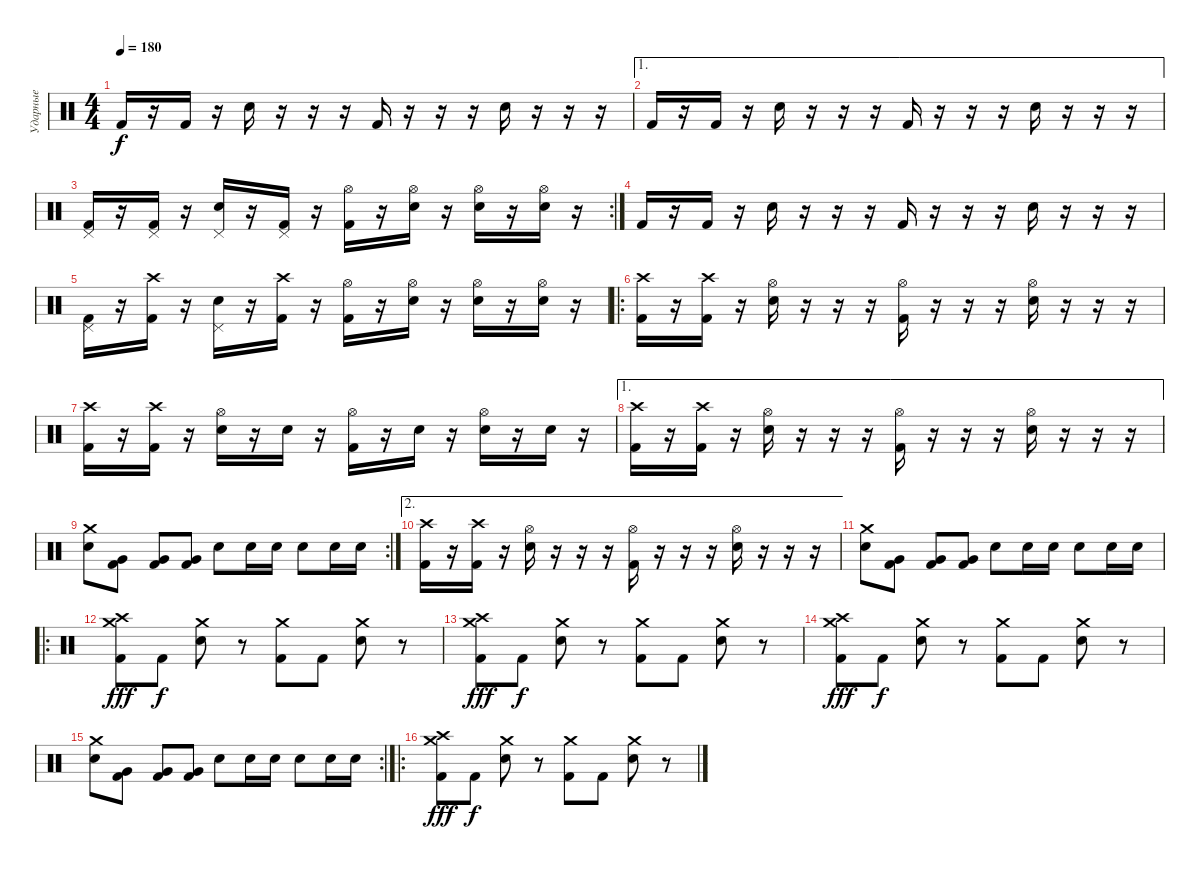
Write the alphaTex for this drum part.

\track ("Ударные" "Ударные") {instrument percussion}
\staff {score}
\articulation defaults
\ts (4 4)
\tempo 180
\clef neutral
\ks c "Kick (hit) 2".16{dy f}
r.16 "Kick (hit) 2".16 r.16 "Electric Snare (hit)".16 r.16 r.16 r.16 "Kick (hit) 2".16 r.16 r.16 r.16 "Electric Snare (hit)".16 r.16 r.16 r.16 |
\ae 1 "Kick (hit) 2".16
r.16 "Kick (hit) 2".16 r.16 "Electric Snare (hit)".16 r.16 r.16 r.16 "Kick (hit) 2".16 r.16 r.16 r.16 "Electric Snare (hit)".16 r.16 r.16 r.16 |
\rc 2
("Pedal Hi-Hat (hit)" "Kick (hit) 2").16 r.16 ("Pedal Hi-Hat (hit)" "Kick (hit) 2").16 r.16 ("Pedal Hi-Hat (hit)" "Electric Snare (hit)").16 r.16 ("Pedal Hi-Hat (hit)" "Kick (hit) 2").16 r.16 ("Hi-Hat (open)" "Kick (hit) 2").16 r.16 ("Hi-Hat (open)" "Electric Snare (hit)").16 r.16 ("Hi-Hat (open)" "Electric Snare (hit)").16 r.16 ("Hi-Hat (open)" "Electric Snare (hit)").16 r.16 |
"Kick (hit) 2".16 r.16 "Kick (hit) 2".16 r.16 "Electric Snare (hit)".16 r.16 r.16 r.16 "Kick (hit) 2".16 r.16 r.16 r.16 "Electric Snare (hit)".16 r.16 r.16 r.16 |
("Pedal Hi-Hat (hit)" "Kick (hit) 2").16 r.16 ("Crash high (hit)" "Kick (hit) 2").16 r.16 ("Pedal Hi-Hat (hit)" "Electric Snare (hit)").16 r.16 ("Crash high (hit)" "Kick (hit) 2").16 r.16 ("Hi-Hat (open)" "Kick (hit) 2").16 r.16 ("Hi-Hat (open)" "Electric Snare (hit)").16 r.16 ("Hi-Hat (open)" "Electric Snare (hit)").16 r.16 ("Hi-Hat (open)" "Electric Snare (hit)").16 r.16 |
\ro
("Crash high (hit)" "Kick (hit) 2").16 r.16 ("Crash high (hit)" "Kick (hit) 2").16 r.16 ("Hi-Hat (open)" "Electric Snare (hit)").16 r.16 r.16 r.16 ("Hi-Hat (open)" "Kick (hit) 2").16 r.16 r.16 r.16 ("Hi-Hat (open)" "Electric Snare (hit)").16 r.16 r.16 r.16 |
("Crash high (hit)" "Kick (hit) 2").16 r.16 ("Crash high (hit)" "Kick (hit) 2").16 r.16 ("Hi-Hat (open)" "Electric Snare (hit)").16 r.16 "Electric Snare (hit)".16 r.16 ("Hi-Hat (open)" "Kick (hit) 2").16 r.16 "Electric Snare (hit)".16 r.16 ("Hi-Hat (open)" "Electric Snare (hit)").16 r.16 "Electric Snare (hit)".16 r.16 |
\ae 1
("Crash high (hit)" "Kick (hit) 2").16 r.16 ("Crash high (hit)" "Kick (hit) 2").16 r.16 ("Hi-Hat (open)" "Electric Snare (hit)").16 r.16 r.16 r.16 ("Hi-Hat (open)" "Kick (hit) 2").16 r.16 r.16 r.16 ("Hi-Hat (open)" "Electric Snare (hit)").16 r.16 r.16 r.16 |
\rc 2
("Crash medium (hit)" "Electric Snare (hit)").8 ("Very Low Tom (hit)" "Kick (hit) 2").8 ("Very Low Tom (hit)" "Kick (hit) 2").8 ("Very Low Tom (hit)" "Kick (hit) 2").8 "Electric Snare (hit)".8 "Electric Snare (hit)".16 "Electric Snare (hit)".16 "Electric Snare (hit)".8 "Electric Snare (hit)".16 "Electric Snare (hit)".16 |
\ae 2
("Crash high (hit)" "Kick (hit) 2").16 r.16 ("Crash high (hit)" "Kick (hit) 2").16 r.16 ("Hi-Hat (open)" "Electric Snare (hit)").16 r.16 r.16 r.16 ("Hi-Hat (open)" "Kick (hit) 2").16 r.16 r.16 r.16 ("Hi-Hat (open)" "Electric Snare (hit)").16 r.16 r.16 r.16 |
("Crash medium (hit)" "Electric Snare (hit)").8 ("Very Low Tom (hit)" "Kick (hit) 2").8 ("Very Low Tom (hit)" "Kick (hit) 2").8 ("Very Low Tom (hit)" "Kick (hit) 2").8 "Electric Snare (hit)".8 "Electric Snare (hit)".16 "Electric Snare (hit)".16 "Electric Snare (hit)".8 "Electric Snare (hit)".16 "Electric Snare (hit)".16 |
\ro
("Crash high (hit)" "Crash medium (hit)" "Kick (hit) 2").8{dy fff} "Kick (hit) 2".8{dy f} ("Crash medium (hit)" "Electric Snare (hit)").8 r.8 ("Crash medium (hit)" "Kick (hit) 2").8 "Kick (hit) 2".8 ("Crash medium (hit)" "Electric Snare (hit)").8 r.8 |
("Crash high (hit)" "Crash medium (hit)" "Kick (hit) 2").8{dy fff} "Kick (hit) 2".8{dy f} ("Crash medium (hit)" "Electric Snare (hit)").8 r.8 ("Crash medium (hit)" "Kick (hit) 2").8 "Kick (hit) 2".8 ("Crash medium (hit)" "Electric Snare (hit)").8 r.8 |
("Crash high (hit)" "Crash medium (hit)" "Kick (hit) 2").8{dy fff} "Kick (hit) 2".8{dy f} ("Crash medium (hit)" "Electric Snare (hit)").8 r.8 ("Crash medium (hit)" "Kick (hit) 2").8 "Kick (hit) 2".8 ("Crash medium (hit)" "Electric Snare (hit)").8 r.8 |
\rc 2
("Crash medium (hit)" "Electric Snare (hit)").8 ("Very Low Tom (hit)" "Kick (hit) 2").8 ("Very Low Tom (hit)" "Kick (hit) 2").8 ("Very Low Tom (hit)" "Kick (hit) 2").8 "Electric Snare (hit)".8 "Electric Snare (hit)".16 "Electric Snare (hit)".16 "Electric Snare (hit)".8 "Electric Snare (hit)".16 "Electric Snare (hit)".16 |
\ro
("Crash high (hit)" "Crash medium (hit)" "Kick (hit) 2").8{dy fff} "Kick (hit) 2".8{dy f} ("Crash medium (hit)" "Electric Snare (hit)").8 r.8 ("Crash medium (hit)" "Kick (hit) 2").8 "Kick (hit) 2".8 ("Crash medium (hit)" "Electric Snare (hit)").8 r.8
